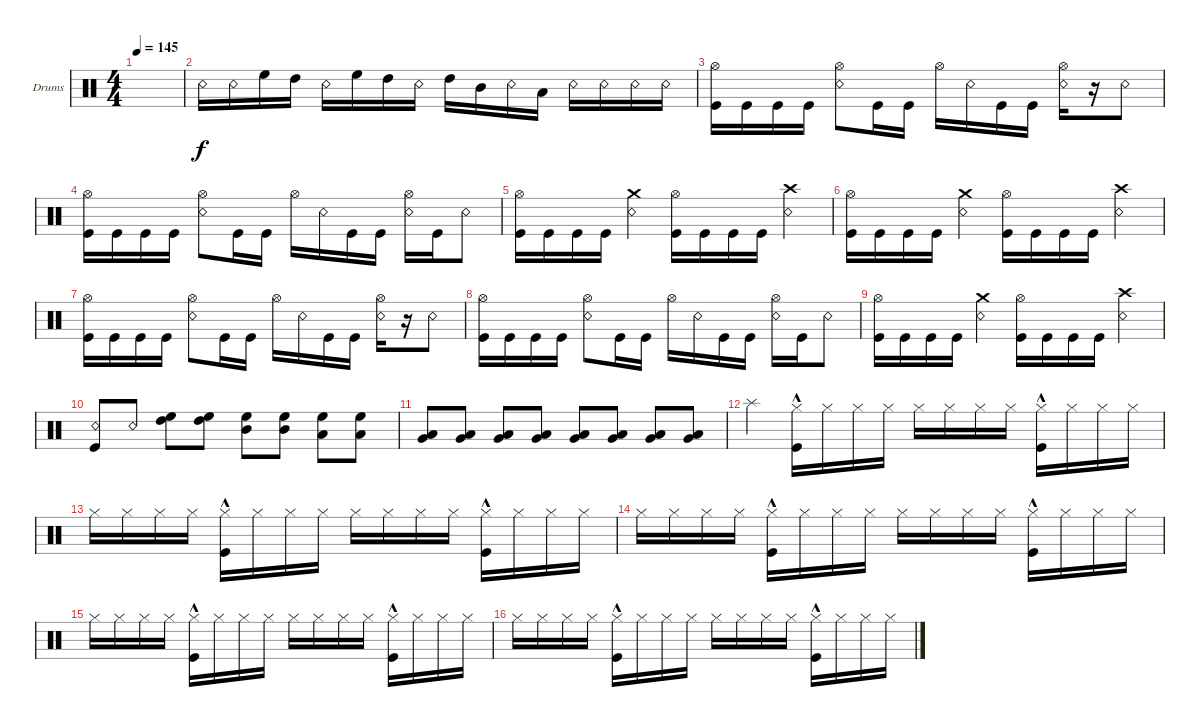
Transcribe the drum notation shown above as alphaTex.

\defaultSystemsLayout 4
\bracketExtendMode groupsimilarinstruments
\firstSystemTrackNameOrientation horizontal
\otherSystemsTrackNameOrientation horizontal
\track ("Drumkit" "Drums") {instrument percussion}
\staff {score}
\articulation defaults
\ts (4 4)
\tempo 145
\clef neutral
\ks c
|
"Snare (rim shot)".16 "Snare (rim shot)".16 "High Floor Tom (hit)".16 "High Tom (hit)".16 "Snare (rim shot)".16 "High Floor Tom (hit)".16 "High Tom (hit)".16 "Snare (rim shot)".16 "High Tom (hit)".16 "Mid Tom (hit)".16 "Snare (rim shot)".16 "Low Tom (hit)".16 "Snare (rim shot)".16 "Snare (rim shot)".16 "Snare (rim shot)".16 "Snare (rim shot)".16 |
("Kick (hit)" "Hi-Hat (open)").16 "Kick (hit)".16 "Kick (hit)".16 "Kick (hit)".16 ("Hi-Hat (open)" "Snare (rim shot)").8 "Kick (hit)".16 "Kick (hit)".16 "Hi-Hat (open)".16 "Snare (rim shot)".16 "Kick (hit)".16 "Kick (hit)".16 ("Snare (rim shot)" "Hi-Hat (open)").16 r.16 "Snare (rim shot)".8 |
("Kick (hit)" "Hi-Hat (open)").16 "Kick (hit)".16 "Kick (hit)".16 "Kick (hit)".16 ("Hi-Hat (open)" "Snare (rim shot)").8 "Kick (hit)".16 "Kick (hit)".16 "Hi-Hat (open)".16 "Snare (rim shot)".16 "Kick (hit)".16 "Kick (hit)".16 ("Snare (rim shot)" "Hi-Hat (open)").16 "Kick (hit)".16 "Snare (rim shot)".8 |
("Kick (hit)" "Hi-Hat (open)").16 "Kick (hit)".16 "Kick (hit)".16 "Kick (hit)".16 ("Snare (rim shot)" "Crash medium (hit)").4 ("Kick (hit)" "Hi-Hat (open)").16 "Kick (hit)".16 "Kick (hit)".16 "Kick (hit)".16 ("Snare (rim shot)" "Crash high (hit)").4 |
("Kick (hit)" "Hi-Hat (open)").16 "Kick (hit)".16 "Kick (hit)".16 "Kick (hit)".16 ("Snare (rim shot)" "Crash medium (hit)").4 ("Kick (hit)" "Hi-Hat (open)").16 "Kick (hit)".16 "Kick (hit)".16 "Kick (hit)".16 ("Snare (rim shot)" "Crash high (hit)").4 |
("Kick (hit)" "Hi-Hat (open)").16 "Kick (hit)".16 "Kick (hit)".16 "Kick (hit)".16 ("Hi-Hat (open)" "Snare (rim shot)").8 "Kick (hit)".16 "Kick (hit)".16 "Hi-Hat (open)".16 "Snare (rim shot)".16 "Kick (hit)".16 "Kick (hit)".16 ("Snare (rim shot)" "Hi-Hat (open)").16 r.16 "Snare (rim shot)".8 |
("Kick (hit)" "Hi-Hat (open)").16 "Kick (hit)".16 "Kick (hit)".16 "Kick (hit)".16 ("Hi-Hat (open)" "Snare (rim shot)").8 "Kick (hit)".16 "Kick (hit)".16 "Hi-Hat (open)".16 "Snare (rim shot)".16 "Kick (hit)".16 "Kick (hit)".16 ("Snare (rim shot)" "Hi-Hat (open)").16 "Kick (hit)".16 "Snare (rim shot)".8 |
("Kick (hit)" "Hi-Hat (open)").16 "Kick (hit)".16 "Kick (hit)".16 "Kick (hit)".16 ("Snare (rim shot)" "Crash medium (hit)").4 ("Kick (hit)" "Hi-Hat (open)").16 "Kick (hit)".16 "Kick (hit)".16 "Kick (hit)".16 ("Snare (rim shot)" "Crash high (hit)").4 |
("Kick (hit)" "Snare (rim shot)").8 "Snare (rim shot)".8 ("High Floor Tom (hit)" "High Tom (hit)").8 ("High Floor Tom (hit)" "High Tom (hit)").8 ("High Floor Tom (hit)" "Mid Tom (hit)").8 ("High Floor Tom (hit)" "Mid Tom (hit)").8 ("High Floor Tom (hit)" "Low Tom (hit)").8 ("High Floor Tom (hit)" "Low Tom (hit)").8 |
("Low Tom (hit)" "Very Low Tom (hit)").8 ("Very Low Tom (hit)" "Low Tom (hit)").8 ("Very Low Tom (hit)" "Low Tom (hit)").8 ("Low Tom (hit)" "Very Low Tom (hit)").8 ("Very Low Tom (hit)" "Low Tom (hit)").8 ("Very Low Tom (hit)" "Low Tom (hit)").8 ("Very Low Tom (hit)" "Low Tom (hit)").8 ("Very Low Tom (hit)" "Low Tom (hit)").8 |
"Splash (hit)".4 ("Hi-Hat (closed)"{hac} "Kick (hit)").16 "Hi-Hat (closed)".16 "Hi-Hat (closed)".16 "Hi-Hat (closed)".16 "Hi-Hat (closed)".16 "Hi-Hat (closed)".16 "Hi-Hat (closed)".16 "Hi-Hat (closed)".16 ("Hi-Hat (closed)"{hac} "Kick (hit)").16 "Hi-Hat (closed)".16 "Hi-Hat (closed)".16 "Hi-Hat (closed)".16 |
"Hi-Hat (closed)".16 "Hi-Hat (closed)".16 "Hi-Hat (closed)".16 "Hi-Hat (closed)".16 ("Hi-Hat (closed)"{hac} "Kick (hit)").16 "Hi-Hat (closed)".16 "Hi-Hat (closed)".16 "Hi-Hat (closed)".16 "Hi-Hat (closed)".16 "Hi-Hat (closed)".16 "Hi-Hat (closed)".16 "Hi-Hat (closed)".16 ("Hi-Hat (closed)"{hac} "Kick (hit)").16 "Hi-Hat (closed)".16 "Hi-Hat (closed)".16 "Hi-Hat (closed)".16 |
"Hi-Hat (closed)".16 "Hi-Hat (closed)".16 "Hi-Hat (closed)".16 "Hi-Hat (closed)".16 ("Hi-Hat (closed)"{hac} "Kick (hit)").16 "Hi-Hat (closed)".16 "Hi-Hat (closed)".16 "Hi-Hat (closed)".16 "Hi-Hat (closed)".16 "Hi-Hat (closed)".16 "Hi-Hat (closed)".16 "Hi-Hat (closed)".16 ("Hi-Hat (closed)"{hac} "Kick (hit)").16 "Hi-Hat (closed)".16 "Hi-Hat (closed)".16 "Hi-Hat (closed)".16 |
"Hi-Hat (closed)".16 "Hi-Hat (closed)".16 "Hi-Hat (closed)".16 "Hi-Hat (closed)".16 ("Hi-Hat (closed)"{hac} "Kick (hit)").16 "Hi-Hat (closed)".16 "Hi-Hat (closed)".16 "Hi-Hat (closed)".16 "Hi-Hat (closed)".16 "Hi-Hat (closed)".16 "Hi-Hat (closed)".16 "Hi-Hat (closed)".16 ("Hi-Hat (closed)"{hac} "Kick (hit)").16 "Hi-Hat (closed)".16 "Hi-Hat (closed)".16 "Hi-Hat (closed)".16 |
"Hi-Hat (closed)".16 "Hi-Hat (closed)".16 "Hi-Hat (closed)".16 "Hi-Hat (closed)".16 ("Hi-Hat (closed)"{hac} "Kick (hit)").16 "Hi-Hat (closed)".16 "Hi-Hat (closed)".16 "Hi-Hat (closed)".16 "Hi-Hat (closed)".16 "Hi-Hat (closed)".16 "Hi-Hat (closed)".16 "Hi-Hat (closed)".16 ("Hi-Hat (closed)"{hac} "Kick (hit)").16 "Hi-Hat (closed)".16 "Hi-Hat (closed)".16 "Hi-Hat (closed)".16
